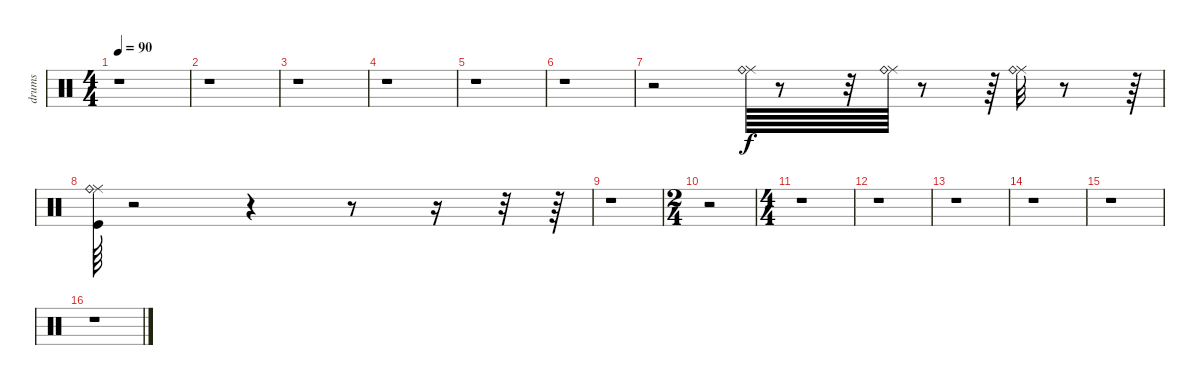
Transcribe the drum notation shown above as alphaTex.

\track ("drums" "drums") {instrument percussion}
\staff {score}
\articulation defaults
\ts (4 4)
\tempo 90
\clef neutral
\ks c
r.1{dy f} |
r.1 |
r.1 |
r.1 |
r.1 |
r.1 |
r.2 ("Ride (middle)" "Ride (bell)").64 r.8 r.32 ("Ride (middle)" "Ride (bell)").64 r.8 r.64 ("Ride (middle)" "Ride (bell)").32 r.8 r.64 |
("Kick (hit)" "Ride (middle)" "Ride (bell)").64 r.2 r.4 r.8 r.16 r.32 r.64 |
r.1 |
\ts (2 4)
r.2 |
\ts (4 4)
r.1 |
r.1 |
r.1 |
r.1 |
r.1 |
r.1
